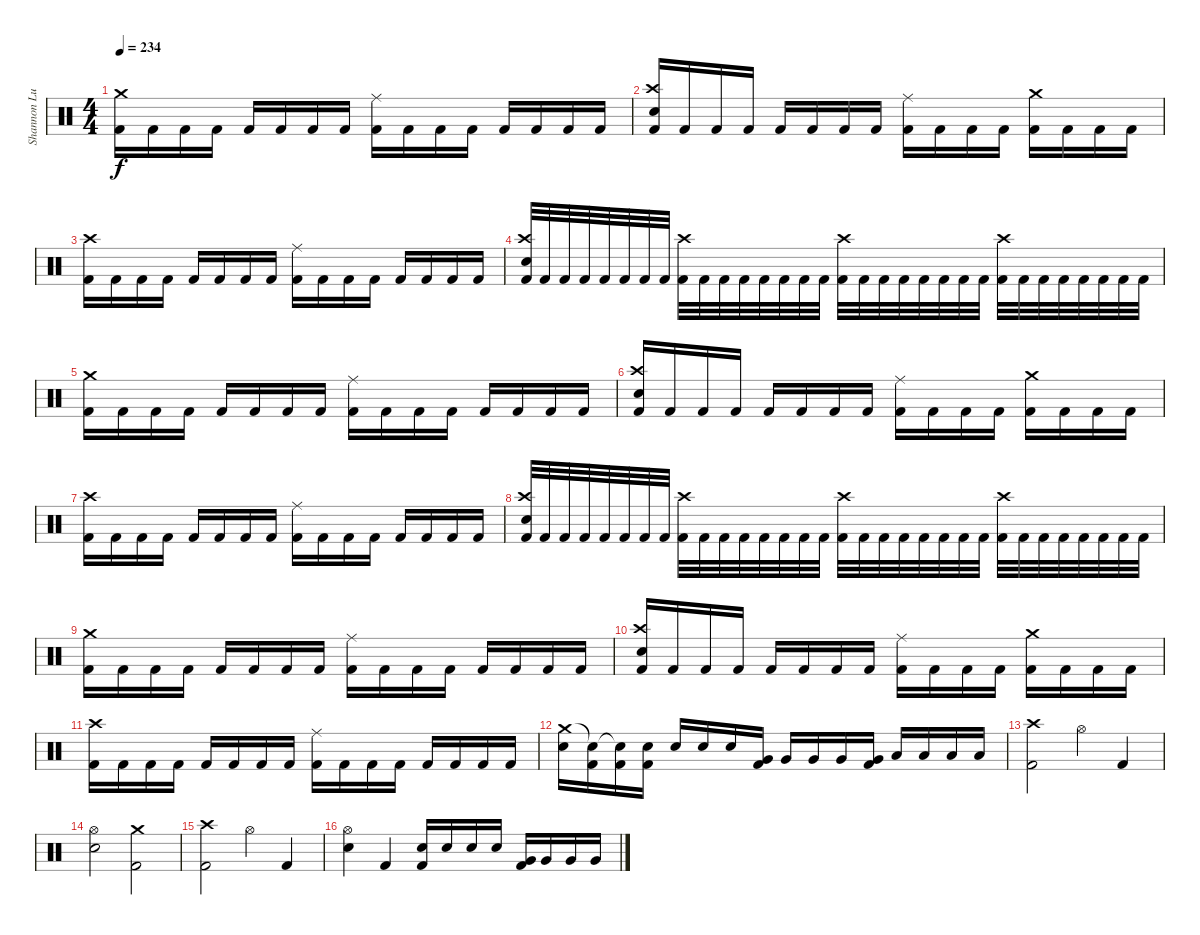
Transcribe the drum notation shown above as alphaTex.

\track ("Shannon Lucas (Drums)" "Shannon Lu") {instrument percussion}
\staff {score}
\articulation defaults
\ts (4 4)
\tempo 234
\clef neutral
\ks c
("Crash medium (hit)" "Kick (hit) 2").16{dy f} "Kick (hit) 2".16 "Kick (hit) 2".16 "Kick (hit) 2".16 "Kick (hit) 2".16 "Kick (hit) 2".16 "Kick (hit) 2".16 "Kick (hit) 2".16 ("Ride (middle)" "Kick (hit) 2").16 "Kick (hit) 2".16 "Kick (hit) 2".16 "Kick (hit) 2".16 "Kick (hit) 2".16 "Kick (hit) 2".16 "Kick (hit) 2".16 "Kick (hit) 2".16 |
("Crash high (hit)" "Electric Snare (hit)" "Kick (hit) 2").16 "Kick (hit) 2".16 "Kick (hit) 2".16 "Kick (hit) 2".16 "Kick (hit) 2".16 "Kick (hit) 2".16 "Kick (hit) 2".16 "Kick (hit) 2".16 ("Ride (middle)" "Kick (hit) 2").16 "Kick (hit) 2".16 "Kick (hit) 2".16 "Kick (hit) 2".16 ("Crash medium (hit)" "Kick (hit) 2").16 "Kick (hit) 2".16 "Kick (hit) 2".16 "Kick (hit) 2".16 |
("Crash high (hit)" "Kick (hit) 2").16 "Kick (hit) 2".16 "Kick (hit) 2".16 "Kick (hit) 2".16 "Kick (hit) 2".16 "Kick (hit) 2".16 "Kick (hit) 2".16 "Kick (hit) 2".16 ("Ride (middle)" "Kick (hit) 2").16 "Kick (hit) 2".16 "Kick (hit) 2".16 "Kick (hit) 2".16 "Kick (hit) 2".16 "Kick (hit) 2".16 "Kick (hit) 2".16 "Kick (hit) 2".16 |
("Crash high (hit)" "Electric Snare (hit)" "Kick (hit) 2").32 "Kick (hit) 2".32 "Kick (hit) 2".32 "Kick (hit) 2".32 "Kick (hit) 2".32 "Kick (hit) 2".32 "Kick (hit) 2".32 "Kick (hit) 2".32 ("Crash high (hit)" "Kick (hit) 2").32 "Kick (hit) 2".32 "Kick (hit) 2".32 "Kick (hit) 2".32 "Kick (hit) 2".32 "Kick (hit) 2".32 "Kick (hit) 2".32 "Kick (hit) 2".32 ("Crash high (hit)" "Kick (hit) 2").32 "Kick (hit) 2".32 "Kick (hit) 2".32 "Kick (hit) 2".32 "Kick (hit) 2".32 "Kick (hit) 2".32 "Kick (hit) 2".32 "Kick (hit) 2".32 ("Crash high (hit)" "Kick (hit) 2").32 "Kick (hit) 2".32 "Kick (hit) 2".32 "Kick (hit) 2".32 "Kick (hit) 2".32 "Kick (hit) 2".32 "Kick (hit) 2".32 "Kick (hit) 2".32 |
("Crash medium (hit)" "Kick (hit) 2").16 "Kick (hit) 2".16 "Kick (hit) 2".16 "Kick (hit) 2".16 "Kick (hit) 2".16 "Kick (hit) 2".16 "Kick (hit) 2".16 "Kick (hit) 2".16 ("Ride (middle)" "Kick (hit) 2").16 "Kick (hit) 2".16 "Kick (hit) 2".16 "Kick (hit) 2".16 "Kick (hit) 2".16 "Kick (hit) 2".16 "Kick (hit) 2".16 "Kick (hit) 2".16 |
("Crash high (hit)" "Electric Snare (hit)" "Kick (hit) 2").16 "Kick (hit) 2".16 "Kick (hit) 2".16 "Kick (hit) 2".16 "Kick (hit) 2".16 "Kick (hit) 2".16 "Kick (hit) 2".16 "Kick (hit) 2".16 ("Ride (middle)" "Kick (hit) 2").16 "Kick (hit) 2".16 "Kick (hit) 2".16 "Kick (hit) 2".16 ("Crash medium (hit)" "Kick (hit) 2").16 "Kick (hit) 2".16 "Kick (hit) 2".16 "Kick (hit) 2".16 |
("Crash high (hit)" "Kick (hit) 2").16 "Kick (hit) 2".16 "Kick (hit) 2".16 "Kick (hit) 2".16 "Kick (hit) 2".16 "Kick (hit) 2".16 "Kick (hit) 2".16 "Kick (hit) 2".16 ("Ride (middle)" "Kick (hit) 2").16 "Kick (hit) 2".16 "Kick (hit) 2".16 "Kick (hit) 2".16 "Kick (hit) 2".16 "Kick (hit) 2".16 "Kick (hit) 2".16 "Kick (hit) 2".16 |
("Crash high (hit)" "Electric Snare (hit)" "Kick (hit) 2").32 "Kick (hit) 2".32 "Kick (hit) 2".32 "Kick (hit) 2".32 "Kick (hit) 2".32 "Kick (hit) 2".32 "Kick (hit) 2".32 "Kick (hit) 2".32 ("Crash high (hit)" "Kick (hit) 2").32 "Kick (hit) 2".32 "Kick (hit) 2".32 "Kick (hit) 2".32 "Kick (hit) 2".32 "Kick (hit) 2".32 "Kick (hit) 2".32 "Kick (hit) 2".32 ("Crash high (hit)" "Kick (hit) 2").32 "Kick (hit) 2".32 "Kick (hit) 2".32 "Kick (hit) 2".32 "Kick (hit) 2".32 "Kick (hit) 2".32 "Kick (hit) 2".32 "Kick (hit) 2".32 ("Crash high (hit)" "Kick (hit) 2").32 "Kick (hit) 2".32 "Kick (hit) 2".32 "Kick (hit) 2".32 "Kick (hit) 2".32 "Kick (hit) 2".32 "Kick (hit) 2".32 "Kick (hit) 2".32 |
("Crash medium (hit)" "Kick (hit) 2").16 "Kick (hit) 2".16 "Kick (hit) 2".16 "Kick (hit) 2".16 "Kick (hit) 2".16 "Kick (hit) 2".16 "Kick (hit) 2".16 "Kick (hit) 2".16 ("Ride (middle)" "Kick (hit) 2").16 "Kick (hit) 2".16 "Kick (hit) 2".16 "Kick (hit) 2".16 "Kick (hit) 2".16 "Kick (hit) 2".16 "Kick (hit) 2".16 "Kick (hit) 2".16 |
("Crash high (hit)" "Electric Snare (hit)" "Kick (hit) 2").16 "Kick (hit) 2".16 "Kick (hit) 2".16 "Kick (hit) 2".16 "Kick (hit) 2".16 "Kick (hit) 2".16 "Kick (hit) 2".16 "Kick (hit) 2".16 ("Ride (middle)" "Kick (hit) 2").16 "Kick (hit) 2".16 "Kick (hit) 2".16 "Kick (hit) 2".16 ("Crash medium (hit)" "Kick (hit) 2").16 "Kick (hit) 2".16 "Kick (hit) 2".16 "Kick (hit) 2".16 |
("Crash high (hit)" "Kick (hit) 2").16 "Kick (hit) 2".16 "Kick (hit) 2".16 "Kick (hit) 2".16 "Kick (hit) 2".16 "Kick (hit) 2".16 "Kick (hit) 2".16 "Kick (hit) 2".16 ("Ride (middle)" "Kick (hit) 2").16 "Kick (hit) 2".16 "Kick (hit) 2".16 "Kick (hit) 2".16 "Kick (hit) 2".16 "Kick (hit) 2".16 "Kick (hit) 2".16 "Kick (hit) 2".16 |
("Crash medium (hit)" "Electric Snare (hit)").16 ("Snare (hit)"{t} "Kick (hit) 2").16 ("Electric Snare (hit)"{t} "Kick (hit) 2").16 ("Electric Snare (hit)" "Kick (hit) 2").16 "Electric Snare (hit)".16 "Electric Snare (hit)".16 "Electric Snare (hit)".16 ("Very Low Tom (hit)" "Kick (hit) 2").16 "Very Low Tom (hit)".16 "Very Low Tom (hit)".16 "Very Low Tom (hit)".16 ("Very Low Tom (hit)" "Kick (hit) 2").16 "Low Floor Tom (hit)".16 "Low Floor Tom (hit)".16 "Low Floor Tom (hit)".16 "Low Floor Tom (hit)".16 |
("Crash high (hit)" "Kick (hit) 2").2 "Hi-Hat (open)".4 "Kick (hit) 2".4 |
("Hi-Hat (open)" "Electric Snare (hit)").2 ("Crash medium (hit)" "Kick (hit) 2").2 |
("Crash high (hit)" "Kick (hit) 2").2 "Hi-Hat (open)".4 "Kick (hit) 2".4 |
("Hi-Hat (open)" "Electric Snare (hit)").4 "Kick (hit) 2".4 ("Electric Snare (hit)" "Kick (hit) 2").16 "Electric Snare (hit)".16 "Electric Snare (hit)".16 "Electric Snare (hit)".16 ("Very Low Tom (hit)" "Kick (hit) 2").16 "Very Low Tom (hit)".16 "Very Low Tom (hit)".16 "Very Low Tom (hit)".16
